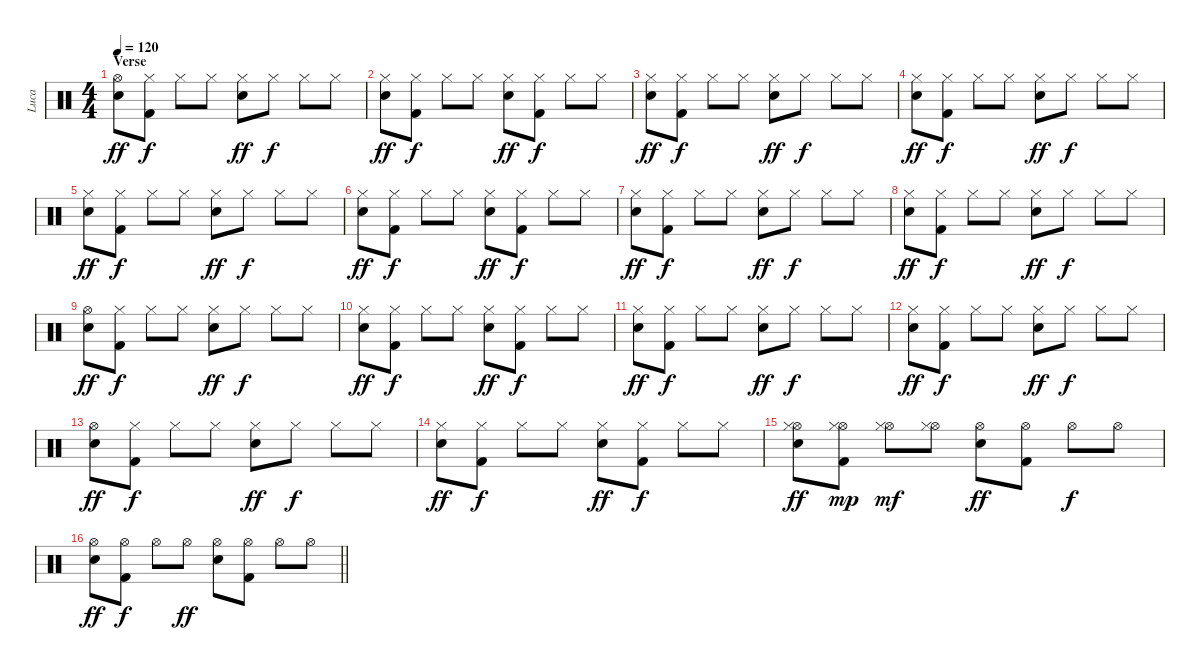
\track ("Luca" "Luca") {instrument percussion}
\staff {score}
\articulation defaults
\ts (4 4)
\section ("" "Verse")
\tempo 120
\clef neutral
\ks c
("Hi-Hat (open)" "Snare (hit) 2").8{dy ff} ("Hi-Hat (closed)" "Kick (hit) 2").8{dy f} "Hi-Hat (closed)".8 "Hi-Hat (closed)".8 ("Hi-Hat (closed)" "Snare (hit) 2").8{dy ff} "Hi-Hat (closed)".8{dy f} "Hi-Hat (closed)".8 "Hi-Hat (closed)".8 |
("Hi-Hat (closed)" "Snare (hit) 2").8{dy ff} ("Hi-Hat (closed)" "Kick (hit) 2").8{dy f} "Hi-Hat (closed)".8 "Hi-Hat (closed)".8 ("Hi-Hat (closed)" "Snare (hit) 2").8{dy ff} ("Hi-Hat (closed)" "Kick (hit) 2").8{dy f} "Hi-Hat (closed)".8 "Hi-Hat (closed)".8 |
("Hi-Hat (closed)" "Snare (hit) 2").8{dy ff} ("Hi-Hat (closed)" "Kick (hit) 2").8{dy f} "Hi-Hat (closed)".8 "Hi-Hat (closed)".8 ("Hi-Hat (closed)" "Snare (hit) 2").8{dy ff} "Hi-Hat (closed)".8{dy f} "Hi-Hat (closed)".8 "Hi-Hat (closed)".8 |
("Hi-Hat (closed)" "Snare (hit) 2").8{dy ff} ("Hi-Hat (closed)" "Kick (hit) 2").8{dy f} "Hi-Hat (closed)".8 "Hi-Hat (closed)".8 ("Hi-Hat (closed)" "Snare (hit) 2").8{dy ff} "Hi-Hat (closed)".8{dy f} "Hi-Hat (closed)".8 "Hi-Hat (closed)".8 |
("Hi-Hat (closed)" "Snare (hit) 2").8{dy ff} ("Hi-Hat (closed)" "Kick (hit) 2").8{dy f} "Hi-Hat (closed)".8 "Hi-Hat (closed)".8 ("Hi-Hat (closed)" "Snare (hit) 2").8{dy ff} "Hi-Hat (closed)".8{dy f} "Hi-Hat (closed)".8 "Hi-Hat (closed)".8 |
("Hi-Hat (closed)" "Snare (hit) 2").8{dy ff} ("Hi-Hat (closed)" "Kick (hit) 2").8{dy f} "Hi-Hat (closed)".8 "Hi-Hat (closed)".8 ("Hi-Hat (closed)" "Snare (hit) 2").8{dy ff} ("Hi-Hat (closed)" "Kick (hit) 2").8{dy f} "Hi-Hat (closed)".8 "Hi-Hat (closed)".8 |
("Hi-Hat (closed)" "Snare (hit) 2").8{dy ff} ("Hi-Hat (closed)" "Kick (hit) 2").8{dy f} "Hi-Hat (closed)".8 "Hi-Hat (closed)".8 ("Hi-Hat (closed)" "Snare (hit) 2").8{dy ff} "Hi-Hat (closed)".8{dy f} "Hi-Hat (closed)".8 "Hi-Hat (closed)".8 |
("Hi-Hat (closed)" "Snare (hit) 2").8{dy ff} ("Hi-Hat (closed)" "Kick (hit) 2").8{dy f} "Hi-Hat (closed)".8 "Hi-Hat (closed)".8 ("Hi-Hat (closed)" "Snare (hit) 2").8{dy ff} "Hi-Hat (closed)".8{dy f} "Hi-Hat (closed)".8 "Hi-Hat (closed)".8 |
("Hi-Hat (open)" "Snare (hit) 2").8{dy ff} ("Hi-Hat (closed)" "Kick (hit) 2").8{dy f} "Hi-Hat (closed)".8 "Hi-Hat (closed)".8 ("Hi-Hat (closed)" "Snare (hit) 2").8{dy ff} "Hi-Hat (closed)".8{dy f} "Hi-Hat (closed)".8 "Hi-Hat (closed)".8 |
("Hi-Hat (closed)" "Snare (hit) 2").8{dy ff} ("Hi-Hat (closed)" "Kick (hit) 2").8{dy f} "Hi-Hat (closed)".8 "Hi-Hat (closed)".8 ("Hi-Hat (closed)" "Snare (hit) 2").8{dy ff} ("Hi-Hat (closed)" "Kick (hit) 2").8{dy f} "Hi-Hat (closed)".8 "Hi-Hat (closed)".8 |
("Hi-Hat (closed)" "Snare (hit) 2").8{dy ff} ("Hi-Hat (closed)" "Kick (hit) 2").8{dy f} "Hi-Hat (closed)".8 "Hi-Hat (closed)".8 ("Hi-Hat (closed)" "Snare (hit) 2").8{dy ff} "Hi-Hat (closed)".8{dy f} "Hi-Hat (closed)".8 "Hi-Hat (closed)".8 |
("Hi-Hat (closed)" "Snare (hit) 2").8{dy ff} ("Hi-Hat (closed)" "Kick (hit) 2").8{dy f} "Hi-Hat (closed)".8 "Hi-Hat (closed)".8 ("Hi-Hat (closed)" "Snare (hit) 2").8{dy ff} "Hi-Hat (closed)".8{dy f} "Hi-Hat (closed)".8 "Hi-Hat (closed)".8 |
("Hi-Hat (open)" "Snare (hit) 2").8{dy ff} ("Hi-Hat (closed)" "Kick (hit) 2").8{dy f} "Hi-Hat (closed)".8 "Hi-Hat (closed)".8 ("Hi-Hat (closed)" "Snare (hit) 2").8{dy ff} "Hi-Hat (closed)".8{dy f} "Hi-Hat (closed)".8 "Hi-Hat (closed)".8 |
("Hi-Hat (closed)" "Snare (hit) 2").8{dy ff} ("Hi-Hat (closed)" "Kick (hit) 2").8{dy f} "Hi-Hat (closed)".8 "Hi-Hat (closed)".8 ("Hi-Hat (closed)" "Snare (hit) 2").8{dy ff} ("Hi-Hat (closed)" "Kick (hit) 2").8{dy f} "Hi-Hat (closed)".8 "Hi-Hat (closed)".8 |
("Hi-Hat (open)" "Hi-Hat (closed)" "Snare (hit) 2").8{dy ff} ("Hi-Hat (open)" "Hi-Hat (closed)" "Kick (hit) 2").8{dy mp} ("Hi-Hat (open)" "Hi-Hat (closed)").8{dy mf} ("Hi-Hat (open)" "Hi-Hat (closed)").8 ("Hi-Hat (open)" "Snare (hit) 2").8{dy ff} ("Hi-Hat (open)" "Kick (hit) 2").8 "Hi-Hat (open)".8{dy f} "Hi-Hat (open)".8 |
\barLineRight lightlight
("Hi-Hat (open)" "Snare (hit) 2").8{dy ff} ("Hi-Hat (open)" "Kick (hit) 2").8{dy f} "Hi-Hat (open)".8 "Hi-Hat (open)".8{dy ff} ("Hi-Hat (open)" "Snare (hit) 2").8 ("Hi-Hat (open)" "Kick (hit) 2").8 "Hi-Hat (open)".8 "Hi-Hat (open)".8
